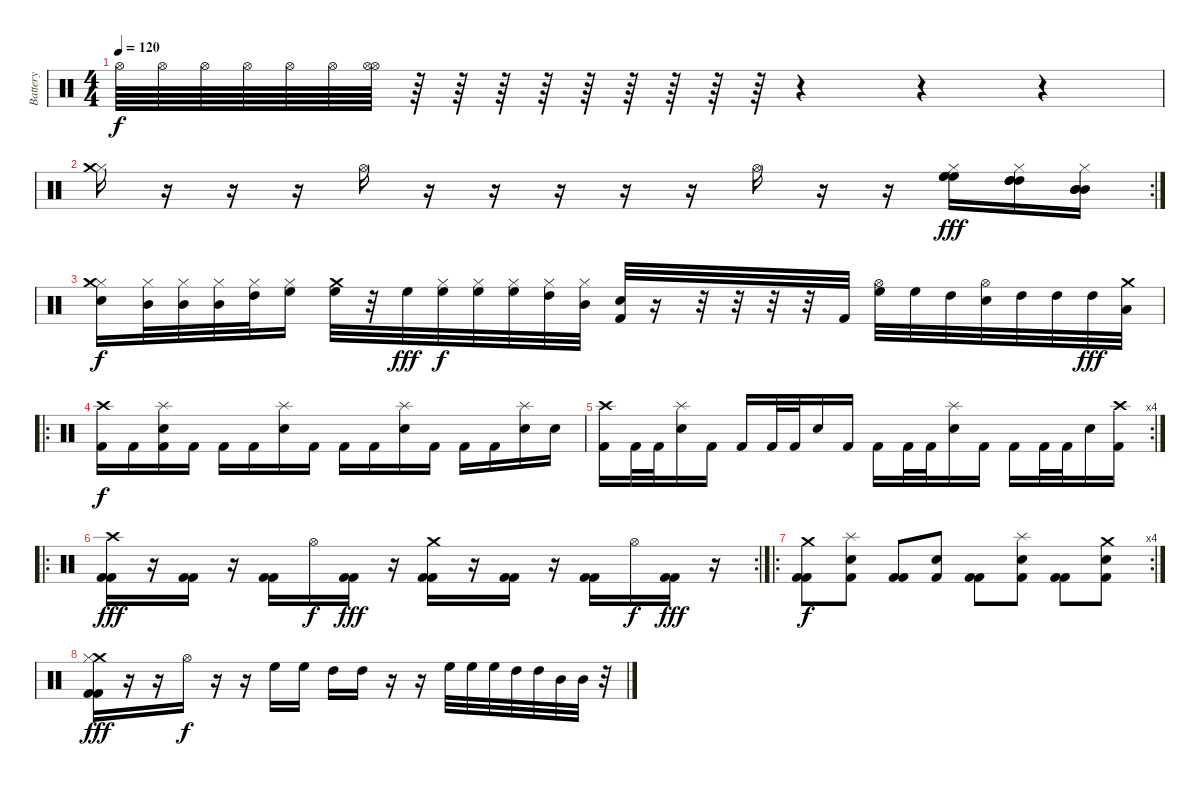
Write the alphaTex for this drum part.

\track ("Battery" "Battery") {instrument percussion}
\staff {score}
\articulation defaults
\ts (4 4)
\tempo 120
\clef neutral
\ks c "Hi-Hat (open)".64{dy f} "Hi-Hat (open)".64 "Hi-Hat (open)".64 "Hi-Hat (open)".64 "Hi-Hat (open)".64 "Hi-Hat (open)".64
("Hi-Hat (open)" "Hi-Hat (open)").64 r.64 r.64 r.64 r.64 r.64 r.64 r.64 r.64 r.64 r.4 r.4 r.4 |
\rc 2
("Hi-Hat (closed)" "Crash medium (hit)").16 r.16 r.16 r.16 "Hi-Hat (open)".16 r.16 r.16 r.16 r.16 r.16 "Hi-Hat (open)".16 r.16 r.16 ("Hi-Hat (closed)" "High Floor Tom (hit)" "High Floor Tom (hit)" "High Floor Tom (hit)").16{dy fff} ("Hi-Hat (closed)" "High Tom (hit)" "High Tom (hit)" "High Tom (hit)").16 ("Hi-Hat (closed)" "Mid Tom (hit)" "Mid Tom (hit)" "Mid Tom (hit)").16 |
("Hi-Hat (closed)" "Snare (hit) 2" "Crash medium (hit)").16{dy f} ("Hi-Hat (closed)" "Mid Tom (hit)").32 ("Hi-Hat (closed)" "Mid Tom (hit)").32 ("Hi-Hat (closed)" "Mid Tom (hit)").32 ("Hi-Hat (closed)" "High Tom (hit)").32 ("Hi-Hat (closed)" "High Floor Tom (hit)").16 ("Crash medium (hit)" "High Floor Tom (hit)").32 r.32 "High Floor Tom (hit)".32{dy fff} ("Hi-Hat (closed)" "High Floor Tom (hit)").32{dy f} ("Hi-Hat (closed)" "High Floor Tom (hit)").32 ("Hi-Hat (closed)" "High Floor Tom (hit)").32 ("Hi-Hat (closed)" "High Tom (hit)").32 ("Hi-Hat (closed)" "Mid Tom (hit)").32 ("Snare (hit) 2" "Kick (hit) 2").32 r.16 r.32 r.32 r.32 r.32 "Kick (hit) 2".32 ("Hi-Hat (open)" "High Floor Tom (hit)").32 "High Floor Tom (hit)".32 "High Tom (hit)".32 ("Hi-Hat (open)" "Snare (hit) 2").32 "High Tom (hit)".32 "High Tom (hit)".32 "High Tom (hit)".32{dy fff} ("Crash medium (hit)" "Low Tom (hit)").32 |
\ro
("Crash high (hit)" "Kick (hit) 2").16{dy f} "Kick (hit) 2".16 ("Snare (hit) 2" "Splash (hit)" "Kick (hit) 2").16 "Kick (hit) 2".16 "Kick (hit) 2".16 "Kick (hit) 2".16 ("Snare (hit) 2" "Splash (hit)").16 "Kick (hit) 2".16 "Kick (hit) 2".16 "Kick (hit) 2".16 ("Snare (hit) 2" "Splash (hit)").16 "Kick (hit) 2".16 "Kick (hit) 2".16 "Kick (hit) 2".16 ("Snare (hit) 2" "Splash (hit)").16 "Snare (hit) 2".16 |
\rc 4
("Crash high (hit)" "Kick (hit) 2").16 "Kick (hit) 2".32 "Kick (hit) 2".32 ("Splash (hit)" "Snare (hit) 2").16 "Kick (hit) 2".16 "Kick (hit) 2".16 "Kick (hit) 2".32 "Kick (hit) 2".32 "Snare (hit) 2".16 "Kick (hit) 2".16 "Kick (hit) 2".16 "Kick (hit) 2".32 "Kick (hit) 2".32 ("Splash (hit)" "Snare (hit) 2").16 "Kick (hit) 2".16 "Kick (hit) 2".16 "Kick (hit) 2".32 "Kick (hit) 2".32 "Snare (hit) 2".16 ("Crash high (hit)" "Kick (hit) 2").16 |
\ro
\rc 2
("Crash high (hit)" "Kick (hit) 2" "Kick (hit) 2").16{dy fff} r.16 ("Kick (hit) 2" "Kick (hit) 2").16 r.16 ("Kick (hit) 2" "Kick (hit) 2").16 "Hi-Hat (open)".16{dy f} ("Kick (hit) 2" "Kick (hit) 2").16{dy fff} r.16 ("Crash medium (hit)" "Kick (hit) 2" "Kick (hit) 2").16 r.16 ("Kick (hit) 2" "Kick (hit) 2").16 r.16 ("Kick (hit) 2" "Kick (hit) 2").16 "Hi-Hat (open)".16{dy f} ("Kick (hit) 2" "Kick (hit) 2").16{dy fff} r.16 |
\ro
\rc 4
("Crash medium (hit)" "Kick (hit) 2" "Kick (hit) 2").8{dy f} ("Snare (hit) 2" "Splash (hit)" "Kick (hit) 2").8 ("Kick (hit) 2" "Kick (hit) 2").8 ("Snare (hit) 2" "Kick (hit) 2").8 ("Kick (hit) 2" "Kick (hit) 2").8 ("Snare (hit) 2" "Splash (hit)" "Kick (hit) 2").8 ("Kick (hit) 2" "Kick (hit) 2").8 ("Snare (hit) 2" "Crash medium (hit)" "Kick (hit) 2").8 |
("Crash medium (hit)" "Hi-Hat (closed)" "Kick (hit) 2" "Kick (hit) 2").16{dy fff} r.16 r.16 "Hi-Hat (open)".16{dy f} r.16 r.16 "High Floor Tom (hit)".16 "High Floor Tom (hit)".16 "High Tom (hit)".16 "High Tom (hit)".16 r.16 r.16 "High Floor Tom (hit)".32 "High Floor Tom (hit)".32 "High Floor Tom (hit)".32 "High Tom (hit)".32 "High Tom (hit)".32 "Mid Tom (hit)".32 "Mid Tom (hit)".32 r.32
